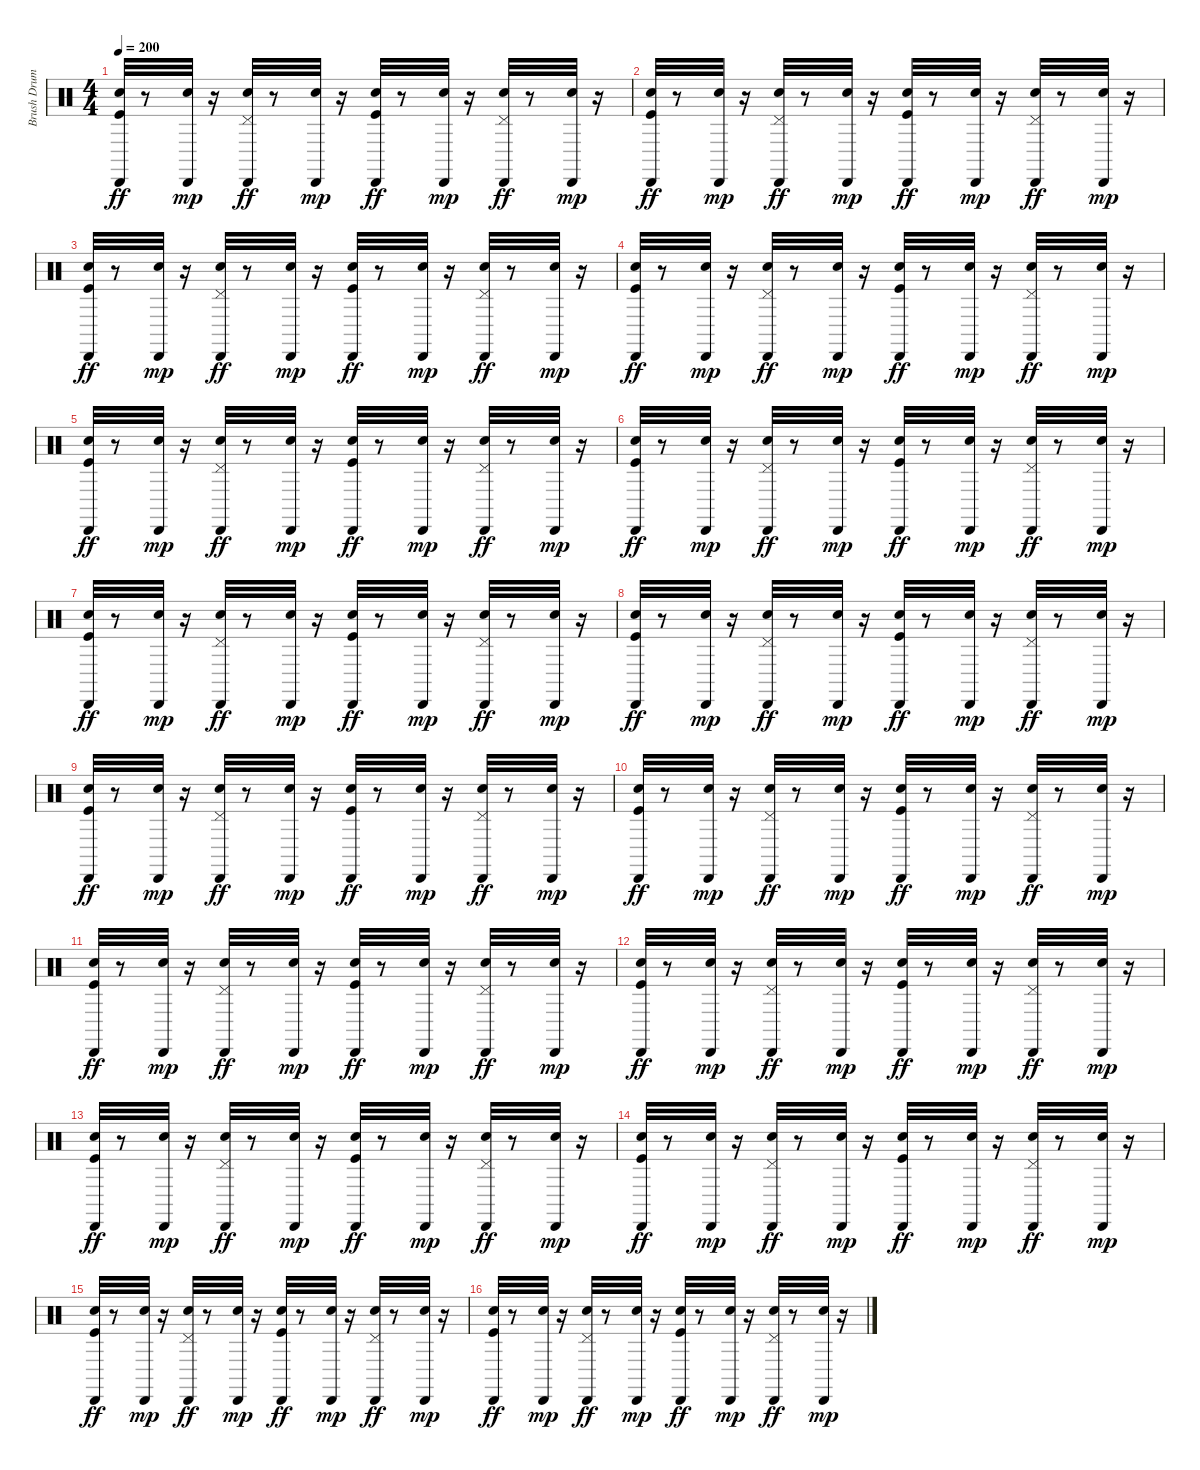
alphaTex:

\track ("Brush Drums" "Brush Drum") {instrument percussion}
\staff {score}
\articulation defaults
\ts (4 4)
\tempo 200
\clef neutral
\ks c
("Cabasa (hit)" "Snare (hit) 2" "Kick (hit)").32{dy ff} r.8 ("Cabasa (hit)" "Snare (hit) 2").32{dy mp} r.16 ("Cabasa (hit)" "Pedal Hi-Hat (hit)" "Hand Clap (hit)").32{dy ff} r.8 ("Cabasa (hit)" "Snare (hit) 2").32{dy mp} r.16 ("Cabasa (hit)" "Kick (hit)" "Snare (hit) 2").32{dy ff} r.8 ("Cabasa (hit)" "Snare (hit) 2").32{dy mp} r.16 ("Cabasa (hit)" "Pedal Hi-Hat (hit)" "Hand Clap (hit)").32{dy ff} r.8 ("Cabasa (hit)" "Snare (hit) 2").32{dy mp} r.16 |
("Cabasa (hit)" "Snare (hit) 2" "Kick (hit)").32{dy ff} r.8 ("Cabasa (hit)" "Snare (hit) 2").32{dy mp} r.16 ("Cabasa (hit)" "Pedal Hi-Hat (hit)" "Hand Clap (hit)").32{dy ff} r.8 ("Cabasa (hit)" "Snare (hit) 2").32{dy mp} r.16 ("Cabasa (hit)" "Kick (hit)" "Snare (hit) 2").32{dy ff} r.8 ("Cabasa (hit)" "Snare (hit) 2").32{dy mp} r.16 ("Cabasa (hit)" "Hand Clap (hit)" "Pedal Hi-Hat (hit)").32{dy ff} r.8 ("Cabasa (hit)" "Snare (hit) 2").32{dy mp} r.16 |
("Cabasa (hit)" "Kick (hit)" "Snare (hit) 2").32{dy ff} r.8 ("Cabasa (hit)" "Snare (hit) 2").32{dy mp} r.16 ("Cabasa (hit)" "Pedal Hi-Hat (hit)" "Hand Clap (hit)").32{dy ff} r.8 ("Cabasa (hit)" "Snare (hit) 2").32{dy mp} r.16 ("Cabasa (hit)" "Snare (hit) 2" "Kick (hit)").32{dy ff} r.8 ("Cabasa (hit)" "Snare (hit) 2").32{dy mp} r.16 ("Cabasa (hit)" "Pedal Hi-Hat (hit)" "Hand Clap (hit)").32{dy ff} r.8 ("Cabasa (hit)" "Snare (hit) 2").32{dy mp} r.16 |
("Cabasa (hit)" "Snare (hit) 2" "Kick (hit)").32{dy ff} r.8 ("Cabasa (hit)" "Snare (hit) 2").32{dy mp} r.16 ("Cabasa (hit)" "Pedal Hi-Hat (hit)" "Hand Clap (hit)").32{dy ff} r.8 ("Cabasa (hit)" "Snare (hit) 2").32{dy mp} r.16 ("Cabasa (hit)" "Snare (hit) 2" "Kick (hit)").32{dy ff} r.8 ("Cabasa (hit)" "Snare (hit) 2").32{dy mp} r.16 ("Cabasa (hit)" "Pedal Hi-Hat (hit)" "Hand Clap (hit)").32{dy ff} r.8 ("Cabasa (hit)" "Snare (hit) 2").32{dy mp} r.16 |
("Cabasa (hit)" "Kick (hit)" "Snare (hit) 2").32{dy ff} r.8 ("Cabasa (hit)" "Snare (hit) 2").32{dy mp} r.16 ("Cabasa (hit)" "Pedal Hi-Hat (hit)" "Hand Clap (hit)").32{dy ff} r.8 ("Cabasa (hit)" "Snare (hit) 2").32{dy mp} r.16 ("Cabasa (hit)" "Kick (hit)" "Snare (hit) 2").32{dy ff} r.8 ("Cabasa (hit)" "Snare (hit) 2").32{dy mp} r.16 ("Cabasa (hit)" "Hand Clap (hit)" "Pedal Hi-Hat (hit)").32{dy ff} r.8 ("Cabasa (hit)" "Snare (hit) 2").32{dy mp} r.16 |
("Cabasa (hit)" "Snare (hit) 2" "Kick (hit)").32{dy ff} r.8 ("Cabasa (hit)" "Snare (hit) 2").32{dy mp} r.16 ("Cabasa (hit)" "Hand Clap (hit)" "Pedal Hi-Hat (hit)").32{dy ff} r.8 ("Cabasa (hit)" "Snare (hit) 2").32{dy mp} r.16 ("Cabasa (hit)" "Snare (hit) 2" "Kick (hit)").32{dy ff} r.8 ("Cabasa (hit)" "Hand Clap (hit)").32{dy mp} r.16 ("Cabasa (hit)" "Pedal Hi-Hat (hit)" "Hand Clap (hit)").32{dy ff} r.8 ("Cabasa (hit)" "Snare (hit) 2").32{dy mp} r.16 |
("Cabasa (hit)" "Kick (hit)" "Snare (hit) 2").32{dy ff} r.8 ("Cabasa (hit)" "Snare (hit) 2").32{dy mp} r.16 ("Cabasa (hit)" "Hand Clap (hit)" "Pedal Hi-Hat (hit)").32{dy ff} r.8 ("Cabasa (hit)" "Snare (hit) 2").32{dy mp} r.16 ("Cabasa (hit)" "Kick (hit)" "Snare (hit) 2").32{dy ff} r.8 ("Cabasa (hit)" "Snare (hit) 2").32{dy mp} r.16 ("Cabasa (hit)" "Pedal Hi-Hat (hit)" "Hand Clap (hit)").32{dy ff} r.8 ("Cabasa (hit)" "Snare (hit) 2").32{dy mp} r.16 |
("Cabasa (hit)" "Snare (hit) 2" "Kick (hit)").32{dy ff} r.8 ("Cabasa (hit)" "Snare (hit) 2").32{dy mp} r.16 ("Cabasa (hit)" "Hand Clap (hit)" "Pedal Hi-Hat (hit)").32{dy ff} r.8 ("Cabasa (hit)" "Snare (hit) 2").32{dy mp} r.16 ("Cabasa (hit)" "Kick (hit)" "Snare (hit) 2").32{dy ff} r.8 ("Cabasa (hit)" "Hand Clap (hit)").32{dy mp} r.16 ("Cabasa (hit)" "Hand Clap (hit)" "Pedal Hi-Hat (hit)").32{dy ff} r.8 ("Cabasa (hit)" "Snare (hit) 2").32{dy mp} r.16 |
("Cabasa (hit)" "Snare (hit) 2" "Kick (hit)").32{dy ff} r.8 ("Cabasa (hit)" "Snare (hit) 2").32{dy mp} r.16 ("Cabasa (hit)" "Pedal Hi-Hat (hit)" "Hand Clap (hit)").32{dy ff} r.8 ("Cabasa (hit)" "Snare (hit) 2").32{dy mp} r.16 ("Cabasa (hit)" "Snare (hit) 2" "Kick (hit)").32{dy ff} r.8 ("Cabasa (hit)" "Hand Clap (hit)").32{dy mp} r.16 ("Cabasa (hit)" "Pedal Hi-Hat (hit)" "Hand Clap (hit)").32{dy ff} r.8 ("Cabasa (hit)" "Snare (hit) 2").32{dy mp} r.16 |
("Cabasa (hit)" "Snare (hit) 2" "Kick (hit)").32{dy ff} r.8 ("Cabasa (hit)" "Snare (hit) 2").32{dy mp} r.16 ("Cabasa (hit)" "Hand Clap (hit)" "Pedal Hi-Hat (hit)").32{dy ff} r.8 ("Cabasa (hit)" "Snare (hit) 2").32{dy mp} r.16 ("Cabasa (hit)" "Kick (hit)" "Snare (hit) 2").32{dy ff} r.8 ("Cabasa (hit)" "Snare (hit) 2").32{dy mp} r.16 ("Cabasa (hit)" "Pedal Hi-Hat (hit)" "Hand Clap (hit)").32{dy ff} r.8 ("Cabasa (hit)" "Snare (hit) 2").32{dy mp} r.16 |
("Cabasa (hit)" "Snare (hit) 2" "Kick (hit)").32{dy ff} r.8 ("Cabasa (hit)" "Snare (hit) 2").32{dy mp} r.16 ("Cabasa (hit)" "Pedal Hi-Hat (hit)" "Hand Clap (hit)").32{dy ff} r.8 ("Cabasa (hit)" "Snare (hit) 2").32{dy mp} r.16 ("Cabasa (hit)" "Kick (hit)" "Snare (hit) 2").32{dy ff} r.8 ("Cabasa (hit)" "Snare (hit) 2").32{dy mp} r.16 ("Cabasa (hit)" "Pedal Hi-Hat (hit)" "Hand Clap (hit)").32{dy ff} r.8 ("Cabasa (hit)" "Snare (hit) 2").32{dy mp} r.16 |
("Cabasa (hit)" "Snare (hit) 2" "Kick (hit)").32{dy ff} r.8 ("Cabasa (hit)" "Snare (hit) 2").32{dy mp} r.16 ("Cabasa (hit)" "Pedal Hi-Hat (hit)" "Hand Clap (hit)").32{dy ff} r.8 ("Cabasa (hit)" "Snare (hit) 2").32{dy mp} r.16 ("Cabasa (hit)" "Snare (hit) 2" "Kick (hit)").32{dy ff} r.8 ("Cabasa (hit)" "Snare (hit) 2").32{dy mp} r.16 ("Cabasa (hit)" "Hand Clap (hit)" "Pedal Hi-Hat (hit)").32{dy ff} r.8 ("Cabasa (hit)" "Snare (hit) 2").32{dy mp} r.16 |
("Cabasa (hit)" "Kick (hit)" "Snare (hit) 2").32{dy ff} r.8 ("Cabasa (hit)" "Snare (hit) 2").32{dy mp} r.16 ("Cabasa (hit)" "Hand Clap (hit)" "Pedal Hi-Hat (hit)").32{dy ff} r.8 ("Cabasa (hit)" "Snare (hit) 2").32{dy mp} r.16 ("Cabasa (hit)" "Snare (hit) 2" "Kick (hit)").32{dy ff} r.8 ("Cabasa (hit)" "Hand Clap (hit)").32{dy mp} r.16 ("Cabasa (hit)" "Hand Clap (hit)" "Pedal Hi-Hat (hit)").32{dy ff} r.8 ("Cabasa (hit)" "Snare (hit) 2").32{dy mp} r.16 |
("Cabasa (hit)" "Kick (hit)" "Snare (hit) 2").32{dy ff} r.8 ("Cabasa (hit)" "Snare (hit) 2").32{dy mp} r.16 ("Cabasa (hit)" "Hand Clap (hit)" "Pedal Hi-Hat (hit)").32{dy ff} r.8 ("Cabasa (hit)" "Snare (hit) 2").32{dy mp} r.16 ("Cabasa (hit)" "Kick (hit)" "Snare (hit) 2").32{dy ff} r.8 ("Cabasa (hit)" "Snare (hit) 2").32{dy mp} r.16 ("Cabasa (hit)" "Pedal Hi-Hat (hit)" "Hand Clap (hit)").32{dy ff} r.8 ("Cabasa (hit)" "Snare (hit) 2").32{dy mp} r.16 |
("Cabasa (hit)" "Snare (hit) 2" "Kick (hit)").32{dy ff} r.8 ("Cabasa (hit)" "Snare (hit) 2").32{dy mp} r.16 ("Cabasa (hit)" "Pedal Hi-Hat (hit)" "Hand Clap (hit)").32{dy ff} r.8 ("Cabasa (hit)" "Snare (hit) 2").32{dy mp} r.16 ("Cabasa (hit)" "Snare (hit) 2" "Kick (hit)").32{dy ff} r.8 ("Cabasa (hit)" "Hand Clap (hit)").32{dy mp} r.16 ("Cabasa (hit)" "Pedal Hi-Hat (hit)" "Hand Clap (hit)").32{dy ff} r.8 ("Cabasa (hit)" "Snare (hit) 2").32{dy mp} r.16 |
("Cabasa (hit)" "Hand Clap (hit)" "Kick (hit)").32{dy ff} r.8 ("Cabasa (hit)" "Snare (hit) 2").32{dy mp} r.16 ("Cabasa (hit)" "Pedal Hi-Hat (hit)" "Snare (hit) 2").32{dy ff} r.8 ("Cabasa (hit)" "Hand Clap (hit)").32{dy mp} r.16 ("Cabasa (hit)" "Snare (hit) 2" "Kick (hit)").32{dy ff} r.8 ("Cabasa (hit)" "Hand Clap (hit)").32{dy mp} r.16 ("Cabasa (hit)" "Hand Clap (hit)" "Pedal Hi-Hat (hit)").32{dy ff} r.8 ("Cabasa (hit)" "Snare (hit) 2").32{dy mp} r.16
